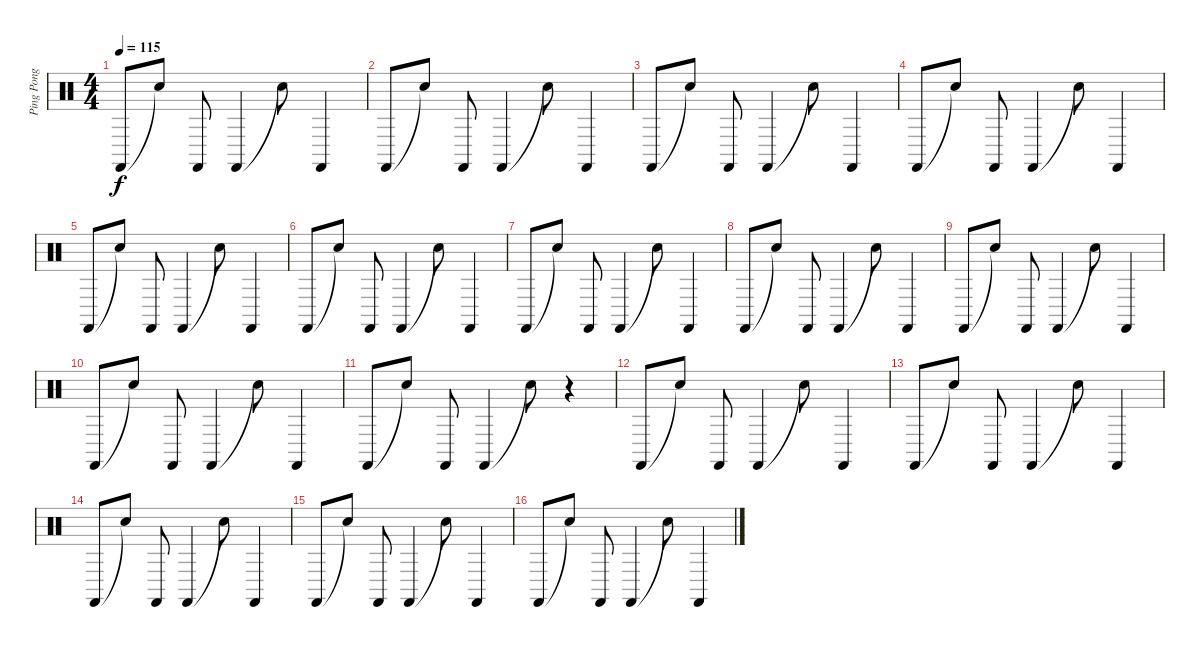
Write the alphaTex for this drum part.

\track ("Ping Pong" "Ping Pong") {instrument percussion}
\staff {score}
\articulation defaults
\ts (4 4)
\tempo 115
\clef neutral
\ks c "Castanets (hit)".8{dy f} "Snare (hit)"{t}.8 "Castanets (hit)".8 "Castanets (hit)".4 "Snare (hit)"{t}.8 "Castanets (hit)".4
|
"Castanets (hit)".8 "Snare (hit)"{t}.8 "Castanets (hit)".8 "Castanets (hit)".4 "Snare (hit)"{t}.8 "Castanets (hit)".4 |
"Castanets (hit)".8 "Snare (hit)"{t}.8 "Castanets (hit)".8 "Castanets (hit)".4 "Snare (hit)"{t}.8 "Castanets (hit)".4 |
"Castanets (hit)".8 "Snare (hit)"{t}.8 "Castanets (hit)".8 "Castanets (hit)".4 "Snare (hit)"{t}.8 "Castanets (hit)".4 |
"Castanets (hit)".8 "Snare (hit)"{t}.8 "Castanets (hit)".8 "Castanets (hit)".4 "Snare (hit)"{t}.8 "Castanets (hit)".4 |
"Castanets (hit)".8 "Snare (hit)"{t}.8 "Castanets (hit)".8 "Castanets (hit)".4 "Snare (hit)"{t}.8 "Castanets (hit)".4 |
"Castanets (hit)".8 "Snare (hit)"{t}.8 "Castanets (hit)".8 "Castanets (hit)".4 "Snare (hit)"{t}.8 "Castanets (hit)".4 |
"Castanets (hit)".8 "Snare (hit)"{t}.8 "Castanets (hit)".8 "Castanets (hit)".4 "Snare (hit)"{t}.8 "Castanets (hit)".4 |
"Castanets (hit)".8 "Snare (hit)"{t}.8 "Castanets (hit)".8 "Castanets (hit)".4 "Snare (hit)"{t}.8 "Castanets (hit)".4 |
"Castanets (hit)".8 "Snare (hit)"{t}.8 "Castanets (hit)".8 "Castanets (hit)".4 "Snare (hit)"{t}.8 "Castanets (hit)".4 |
"Castanets (hit)".8 "Snare (hit)"{t}.8 "Castanets (hit)".8 "Castanets (hit)".4 "Snare (hit)"{t}.8 r.4 |
"Castanets (hit)".8 "Snare (hit)"{t}.8 "Castanets (hit)".8 "Castanets (hit)".4 "Snare (hit)"{t}.8 "Castanets (hit)".4 |
"Castanets (hit)".8 "Snare (hit)"{t}.8 "Castanets (hit)".8 "Castanets (hit)".4 "Snare (hit)"{t}.8 "Castanets (hit)".4 |
"Castanets (hit)".8 "Snare (hit)"{t}.8 "Castanets (hit)".8 "Castanets (hit)".4 "Snare (hit)"{t}.8 "Castanets (hit)".4 |
"Castanets (hit)".8 "Snare (hit)"{t}.8 "Castanets (hit)".8 "Castanets (hit)".4 "Snare (hit)"{t}.8 "Castanets (hit)".4 |
"Castanets (hit)".8 "Snare (hit)"{t}.8 "Castanets (hit)".8 "Castanets (hit)".4 "Snare (hit)"{t}.8 "Castanets (hit)".4
